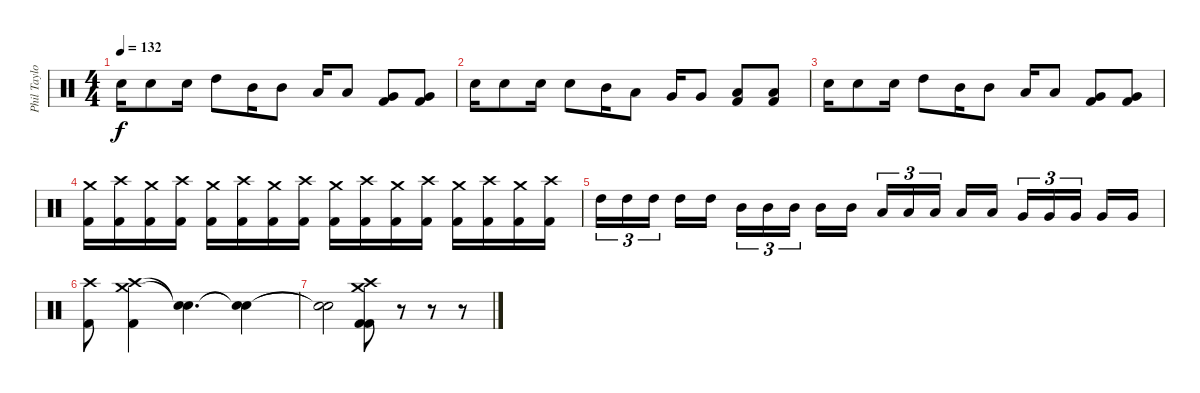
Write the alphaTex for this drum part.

\track ("Phil Taylor" "Phil Taylo") {instrument percussion}
\staff {score}
\articulation defaults
\ts (4 4)
\tempo 132
\clef neutral
\ks c "Snare (hit) 2".16{dy f} "Snare (hit) 2".8 "Snare (hit) 2".16 "High Tom (hit)".8 "Mid Tom (hit)".16 "Mid Tom (hit)".8 "Low Tom (hit)".16 "Low Tom (hit)".8
("Very Low Tom (hit)" "Kick (hit) 2").8 ("Very Low Tom (hit)" "Kick (hit) 2").8 |
"Snare (hit) 2".16 "Snare (hit) 2".8 "Snare (hit) 2".16 "Snare (hit) 2".8 "Mid Tom (hit)".16 "Low Tom (hit)".8 "Very Low Tom (hit)".16 "Very Low Tom (hit)".8 ("Low Floor Tom (hit)" "Kick (hit) 2").8 ("Low Floor Tom (hit)" "Kick (hit) 2").8 |
"Snare (hit) 2".16 "Snare (hit) 2".8 "Snare (hit) 2".16 "High Tom (hit)".8 "Mid Tom (hit)".16 "Mid Tom (hit)".8 "Low Tom (hit)".16 "Low Tom (hit)".8 ("Very Low Tom (hit)" "Kick (hit) 2").8 ("Very Low Tom (hit)" "Kick (hit) 2").8 |
("Crash medium (hit)" "Kick (hit) 2").16 ("Crash high (hit)" "Kick (hit) 2").16 ("Crash medium (hit)" "Kick (hit) 2").16 ("Crash high (hit)" "Kick (hit) 2").16 ("Crash medium (hit)" "Kick (hit) 2").16 ("Crash high (hit)" "Kick (hit) 2").16 ("Crash medium (hit)" "Kick (hit) 2").16 ("Crash high (hit)" "Kick (hit) 2").16 ("Crash medium (hit)" "Kick (hit) 2").16 ("Crash high (hit)" "Kick (hit) 2").16 ("Crash medium (hit)" "Kick (hit) 2").16 ("Crash high (hit)" "Kick (hit) 2").16 ("Crash medium (hit)" "Kick (hit) 2").16 ("Crash high (hit)" "Kick (hit) 2").16 ("Crash medium (hit)" "Kick (hit) 2").16 ("Crash high (hit)" "Kick (hit) 2").16 |
"High Tom (hit)".16{tu (3 2)} "High Tom (hit)".16{tu (3 2)} "High Tom (hit)".16{tu (3 2) beam splitsecondary} "High Tom (hit)".16 "High Tom (hit)".16 "Mid Tom (hit)".16{tu (3 2)} "Mid Tom (hit)".16{tu (3 2)} "Mid Tom (hit)".16{tu (3 2) beam splitsecondary} "Mid Tom (hit)".16 "Mid Tom (hit)".16 "Low Tom (hit)".16{tu (3 2)} "Low Tom (hit)".16{tu (3 2)} "Low Tom (hit)".16{tu (3 2) beam splitsecondary} "Low Tom (hit)".16 "Low Tom (hit)".16 "Very Low Tom (hit)".16{tu (3 2)} "Very Low Tom (hit)".16{tu (3 2)} "Very Low Tom (hit)".16{tu (3 2) beam splitsecondary} "Very Low Tom (hit)".16 "Very Low Tom (hit)".16 |
("Crash high (hit)" "Kick (hit) 2").8 ("Crash medium (hit)" "Crash high (hit)" "Kick (hit) 2").4 ("Snare (hit)"{t} "Snare (hit)"{t}).4{d} ("Snare (hit)"{t} "Snare (hit)"{t}).4 |
("Snare (hit)"{t} "Snare (hit)"{t}).2 ("Crash medium (hit)" "Crash high (hit)" "Kick (hit) 2" "Kick (hit) 2").8 r.8 r.8 r.8
